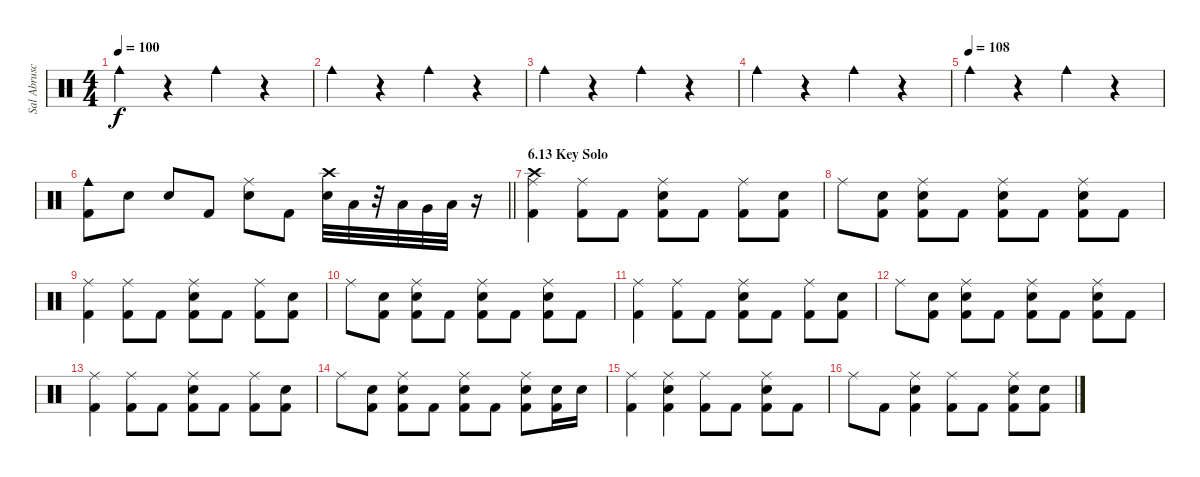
\track ("Sal Abruscato (Drums)" "Sal Abrusc") {instrument percussion}
\staff {score}
\articulation defaults
\ts (4 4)
\tempo 100
\clef neutral
\ks c "Cowbell medium (hit)".4{dy f}
r.4 "Cowbell medium (hit)".4 r.4 |
"Cowbell medium (hit)".4 r.4 "Cowbell medium (hit)".4 r.4 |
"Cowbell medium (hit)".4 r.4 "Cowbell medium (hit)".4 r.4 |
"Cowbell medium (hit)".4 r.4 "Cowbell medium (hit)".4 r.4 |
\tempo (108)
"Cowbell medium (hit)".4 r.4 "Cowbell medium (hit)".4 r.4 |
\barLineRight lightlight
("Kick (hit) 2" "Cowbell medium (hit)").8 "Electric Snare (hit)".8 "Electric Snare (hit)".8 "Kick (hit) 2".8 ("Ride (middle)" "Electric Snare (hit)").8 "Kick (hit) 2".8 ("Crash high (hit)" "Electric Snare (hit)").32 "Low Tom (hit)".32 r.32 "Low Tom (hit)".32 "Very Low Tom (hit)".32 "Low Floor Tom (hit)".32 r.16 |
\section ("" "6.13 Key Solo")
("Crash high (hit)" "Ride (middle)" "Kick (hit) 2").4 ("Ride (middle)" "Kick (hit) 2").8 "Kick (hit) 2".8 ("Ride (middle)" "Electric Snare (hit)" "Kick (hit) 2").8 "Kick (hit) 2".8 ("Ride (middle)" "Kick (hit) 2").8 ("Electric Snare (hit)" "Kick (hit) 2").8 |
"Ride (middle)".8 ("Kick (hit) 2" "Electric Snare (hit)").8 ("Ride (middle)" "Kick (hit) 2" "Electric Snare (hit)").8 "Kick (hit) 2".8 ("Ride (middle)" "Kick (hit) 2" "Electric Snare (hit)").8 "Kick (hit) 2".8 ("Ride (middle)" "Kick (hit) 2" "Electric Snare (hit)").8 "Kick (hit) 2".8 |
("Ride (middle)" "Kick (hit) 2").4 ("Ride (middle)" "Kick (hit) 2").8 "Kick (hit) 2".8 ("Ride (middle)" "Electric Snare (hit)" "Kick (hit) 2").8 "Kick (hit) 2".8 ("Ride (middle)" "Kick (hit) 2").8 ("Electric Snare (hit)" "Kick (hit) 2").8 |
"Ride (middle)".8 ("Kick (hit) 2" "Electric Snare (hit)").8 ("Ride (middle)" "Kick (hit) 2" "Electric Snare (hit)").8 "Kick (hit) 2".8 ("Ride (middle)" "Kick (hit) 2" "Electric Snare (hit)").8 "Kick (hit) 2".8 ("Ride (middle)" "Kick (hit) 2" "Electric Snare (hit)").8 "Kick (hit) 2".8 |
("Ride (middle)" "Kick (hit) 2").4 ("Ride (middle)" "Kick (hit) 2").8 "Kick (hit) 2".8 ("Ride (middle)" "Electric Snare (hit)" "Kick (hit) 2").8 "Kick (hit) 2".8 ("Ride (middle)" "Kick (hit) 2").8 ("Electric Snare (hit)" "Kick (hit) 2").8 |
"Ride (middle)".8 ("Kick (hit) 2" "Electric Snare (hit)").8 ("Ride (middle)" "Kick (hit) 2" "Electric Snare (hit)").8 "Kick (hit) 2".8 ("Ride (middle)" "Kick (hit) 2" "Electric Snare (hit)").8 "Kick (hit) 2".8 ("Ride (middle)" "Kick (hit) 2" "Electric Snare (hit)").8 "Kick (hit) 2".8 |
("Ride (middle)" "Kick (hit) 2").4 ("Ride (middle)" "Kick (hit) 2").8 "Kick (hit) 2".8 ("Ride (middle)" "Electric Snare (hit)" "Kick (hit) 2").8 "Kick (hit) 2".8 ("Ride (middle)" "Kick (hit) 2").8 ("Electric Snare (hit)" "Kick (hit) 2").8 |
"Ride (middle)".8 ("Kick (hit) 2" "Electric Snare (hit)").8 ("Ride (middle)" "Kick (hit) 2" "Electric Snare (hit)").8 "Kick (hit) 2".8 ("Ride (middle)" "Kick (hit) 2" "Electric Snare (hit)").8 "Kick (hit) 2".8 ("Ride (middle)" "Kick (hit) 2" "Electric Snare (hit)").8 ("Electric Snare (hit)" "Kick (hit) 2").16 "Electric Snare (hit)".16 |
("Ride (middle)" "Kick (hit) 2").4 ("Ride (middle)" "Kick (hit) 2" "Electric Snare (hit)").4 ("Ride (middle)" "Kick (hit) 2").8 "Kick (hit) 2".8 ("Ride (middle)" "Kick (hit) 2" "Electric Snare (hit)").8 "Kick (hit) 2".8 |
"Ride (middle)".8 "Kick (hit) 2".8 ("Ride (middle)" "Electric Snare (hit)" "Kick (hit) 2").4 ("Ride (middle)" "Kick (hit) 2").8 "Kick (hit) 2".8 ("Ride (middle)" "Electric Snare (hit)" "Kick (hit) 2").8 ("Electric Snare (hit)" "Kick (hit) 2").8
